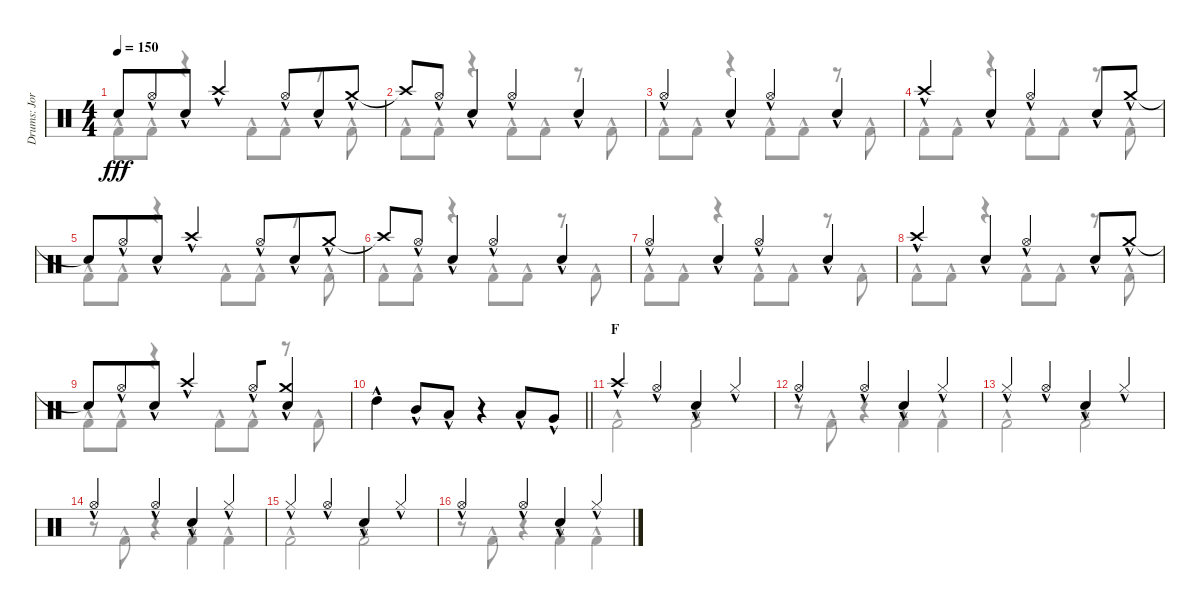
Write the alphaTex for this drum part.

\track ("Drums: Jorg" "Drums: Jor") {instrument percussion}
\staff {score}
\articulation defaults
\voice
\ts (4 4)
\tempo 150
\clef neutral
\ks c "Snare (hit)"{t}.8{dy fff} "Hi-Hat (open)"{hac}.8{beam merge} "Snare (hit) 2"{hac}.8 "Crash high (hit)"{hac}.4 "Hi-Hat (open)"{hac}.8{beam merge} "Snare (hit) 2"{hac}.8 "Crash medium (hit)"{hac}.8
|
"Crash high (hit)"{t}.8 "Hi-Hat (open)"{hac}.8{beam merge} "Snare (hit) 2"{hac}.4 "Hi-Hat (open)"{hac}.4{beam merge} "Snare (hit) 2"{hac}.4 |
"Hi-Hat (open)"{hac}.4{beam merge} "Snare (hit) 2"{hac}.4 "Hi-Hat (open)"{hac}.4{beam merge} "Snare (hit) 2"{hac}.4 |
"Crash high (hit)"{hac}.4{beam merge} "Snare (hit) 2"{hac}.4 "Hi-Hat (open)"{hac}.4{beam merge} "Snare (hit) 2"{hac}.8 "Crash medium (hit)"{hac}.8 |
"Snare (hit)"{t}.8 "Hi-Hat (open)"{hac}.8{beam merge} "Snare (hit) 2"{hac}.8 "Crash high (hit)"{hac}.4 "Hi-Hat (open)"{hac}.8{beam merge} "Snare (hit) 2"{hac}.8 "Crash medium (hit)"{hac}.8 |
"Crash high (hit)"{t}.8 "Hi-Hat (open)"{hac}.8{beam merge} "Snare (hit) 2"{hac}.4 "Hi-Hat (open)"{hac}.4{beam merge} "Snare (hit) 2"{hac}.4 |
"Hi-Hat (open)"{hac}.4{beam merge} "Snare (hit) 2"{hac}.4 "Hi-Hat (open)"{hac}.4{beam merge} "Snare (hit) 2"{hac}.4 |
"Crash high (hit)"{hac}.4{beam merge} "Snare (hit) 2"{hac}.4 "Hi-Hat (open)"{hac}.4{beam merge} "Snare (hit) 2"{hac}.8 "Crash medium (hit)"{hac}.8 |
"Snare (hit)"{t}.8 "Hi-Hat (open)"{hac}.8{beam merge} "Snare (hit) 2"{hac}.8 "Crash high (hit)"{hac}.4 "Hi-Hat (open)"{hac}.8{beam merge} ("Crash medium (hit)"{hac} "Snare (hit) 2"{hac}).4 |
\barLineRight lightlight "High Tom (hit)"{hac}.4 "Mid Tom (hit)"{hac}.8 "Low Tom (hit)"{hac}.8
r.4 "Low Tom (hit)"{hac}.8 "Very Low Tom (hit)"{hac}.8 |
\section ("" "F")
"Crash high (hit)"{hac}.4 "Hi-Hat (open)"{hac}.4{beam merge} "Snare (hit) 2"{hac}.4 "Hi-Hat (closed)"{hac}.4 |
"Hi-Hat (open)"{hac}.4 "Hi-Hat (open)"{hac}.4{beam merge} "Snare (hit) 2"{hac}.4 "Hi-Hat (closed)"{hac}.4 |
"Hi-Hat (closed)"{hac}.4 "Hi-Hat (open)"{hac}.4{beam merge} "Snare (hit) 2"{hac}.4 "Hi-Hat (closed)"{hac}.4 |
"Hi-Hat (open)"{hac}.4 "Hi-Hat (open)"{hac}.4{beam merge} "Snare (hit) 2"{hac}.4 "Hi-Hat (closed)"{hac}.4 |
"Hi-Hat (closed)"{hac}.4 "Hi-Hat (open)"{hac}.4{beam merge} "Snare (hit) 2"{hac}.4 "Hi-Hat (closed)"{hac}.4 |
"Hi-Hat (open)"{hac}.4 "Hi-Hat (open)"{hac}.4{beam merge} "Snare (hit) 2"{hac}.4 "Hi-Hat (closed)"{hac}.4
\voice
\clef neutral
\ottava regular
\simile none
\ks c "Kick (hit) 2"{hac}.8{dy fff} "Kick (hit) 2"{hac}.8
r.4 "Kick (hit) 2"{hac}.8 "Kick (hit) 2"{hac}.8 r.8 "Kick (hit) 2"{hac}.8 |
"Kick (hit) 2"{hac}.8 "Kick (hit) 2"{hac}.8 r.4 "Kick (hit) 2"{hac}.8 "Kick (hit) 2"{hac}.8 r.8 "Kick (hit) 2"{hac}.8 |
"Kick (hit) 2"{hac}.8 "Kick (hit) 2"{hac}.8 r.4 "Kick (hit) 2"{hac}.8 "Kick (hit) 2"{hac}.8 r.8 "Kick (hit) 2"{hac}.8 |
"Kick (hit) 2"{hac}.8 "Kick (hit) 2"{hac}.8 r.4 "Kick (hit) 2"{hac}.8 "Kick (hit) 2"{hac}.8 r.8 "Kick (hit) 2"{hac}.8 |
"Kick (hit) 2"{hac}.8 "Kick (hit) 2"{hac}.8 r.4 "Kick (hit) 2"{hac}.8 "Kick (hit) 2"{hac}.8 r.8 "Kick (hit) 2"{hac}.8 |
"Kick (hit) 2"{hac}.8 "Kick (hit) 2"{hac}.8 r.4 "Kick (hit) 2"{hac}.8 "Kick (hit) 2"{hac}.8 r.8 "Kick (hit) 2"{hac}.8 |
"Kick (hit) 2"{hac}.8 "Kick (hit) 2"{hac}.8 r.4 "Kick (hit) 2"{hac}.8 "Kick (hit) 2"{hac}.8 r.8 "Kick (hit) 2"{hac}.8 |
"Kick (hit) 2"{hac}.8 "Kick (hit) 2"{hac}.8 r.4 "Kick (hit) 2"{hac}.8 "Kick (hit) 2"{hac}.8 r.8 "Kick (hit) 2"{hac}.8 |
"Kick (hit) 2"{hac}.8 "Kick (hit) 2"{hac}.8 r.4 "Kick (hit) 2"{hac}.8 "Kick (hit) 2"{hac}.8 r.8 "Kick (hit) 2"{hac}.8 |
\barLineRight lightlight
|
"Kick (hit) 2"{hac}.2 "Kick (hit) 2"{hac}.2 |
r.8 "Kick (hit) 2"{hac}.8 r.4 "Kick (hit) 2"{hac}.4 "Kick (hit) 2"{hac}.4 |
"Kick (hit) 2"{hac}.2 "Kick (hit) 2"{hac}.2 |
r.8 "Kick (hit) 2"{hac}.8 r.4 "Kick (hit) 2"{hac}.4 "Kick (hit) 2"{hac}.4 |
"Kick (hit) 2"{hac}.2 "Kick (hit) 2"{hac}.2 |
r.8 "Kick (hit) 2"{hac}.8 r.4 "Kick (hit) 2"{hac}.4 "Kick (hit) 2"{hac}.4
